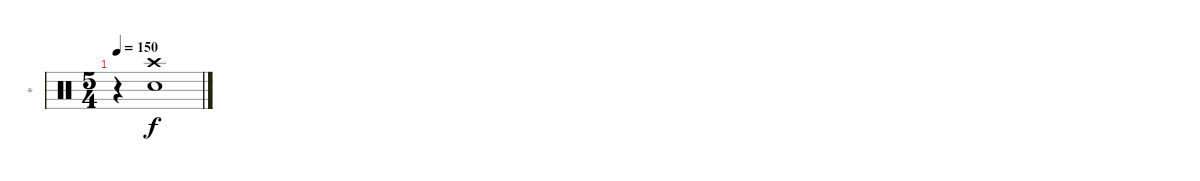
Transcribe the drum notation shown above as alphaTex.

\track ("*" "*") {instrument percussion}
\staff {score}
\articulation defaults
\ts (5 4)
\tempo 150
\clef neutral
\ks c
r.4{dy f} ("Crash high (hit)" "Electric Snare (hit)").1
